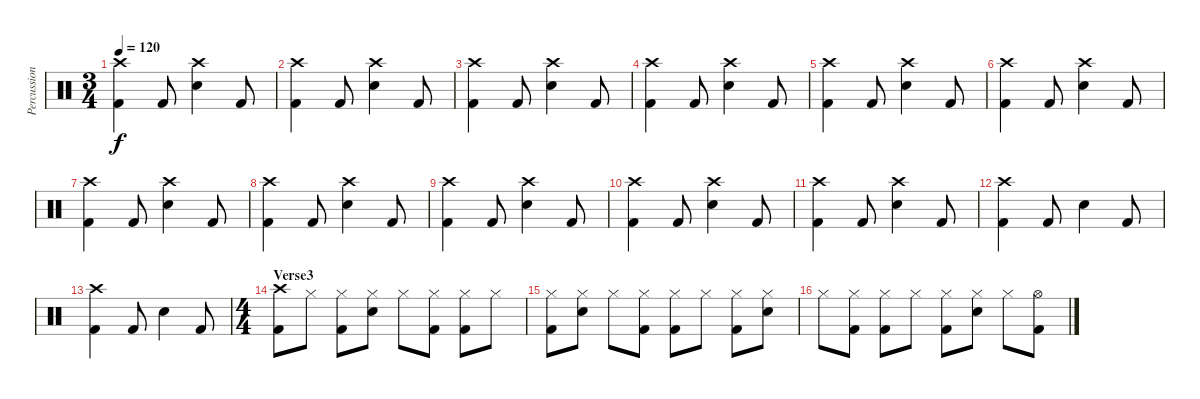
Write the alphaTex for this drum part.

\track ("Percussion" "Percussion") {instrument percussion}
\staff {score}
\articulation defaults
\ts (3 4)
\tempo 120
\clef neutral
\ks c
("Crash high (hit)" "Kick (hit) 2").4{dy f} "Kick (hit) 2".8 ("Crash high (hit)" "Snare (hit) 2").4 "Kick (hit) 2".8 |
("Crash high (hit)" "Kick (hit) 2").4 "Kick (hit) 2".8 ("Crash high (hit)" "Snare (hit) 2").4 "Kick (hit) 2".8 |
("Crash high (hit)" "Kick (hit) 2").4 "Kick (hit) 2".8 ("Crash high (hit)" "Snare (hit) 2").4 "Kick (hit) 2".8 |
("Crash high (hit)" "Kick (hit) 2").4 "Kick (hit) 2".8 ("Crash high (hit)" "Snare (hit) 2").4 "Kick (hit) 2".8 |
("Crash high (hit)" "Kick (hit) 2").4 "Kick (hit) 2".8 ("Crash high (hit)" "Snare (hit) 2").4 "Kick (hit) 2".8 |
("Crash high (hit)" "Kick (hit) 2").4 "Kick (hit) 2".8 ("Crash high (hit)" "Snare (hit) 2").4 "Kick (hit) 2".8 |
("Crash high (hit)" "Kick (hit) 2").4 "Kick (hit) 2".8 ("Crash high (hit)" "Snare (hit) 2").4 "Kick (hit) 2".8 |
("Crash high (hit)" "Kick (hit) 2").4 "Kick (hit) 2".8 ("Crash high (hit)" "Snare (hit) 2").4 "Kick (hit) 2".8 |
("Crash high (hit)" "Kick (hit) 2").4 "Kick (hit) 2".8 ("Crash high (hit)" "Snare (hit) 2").4 "Kick (hit) 2".8 |
("Crash high (hit)" "Kick (hit) 2").4 "Kick (hit) 2".8 ("Crash high (hit)" "Snare (hit) 2").4 "Kick (hit) 2".8 |
("Crash high (hit)" "Kick (hit) 2").4 "Kick (hit) 2".8 ("Crash high (hit)" "Snare (hit) 2").4 "Kick (hit) 2".8 |
("Crash high (hit)" "Kick (hit) 2").4 "Kick (hit) 2".8 "Snare (hit) 2".4 "Kick (hit) 2".8 |
("Crash high (hit)" "Kick (hit) 2").4 "Kick (hit) 2".8 "Snare (hit) 2".4 "Kick (hit) 2".8 |
\ts (4 4)
\section ("" "Verse3")
("Crash high (hit)" "Kick (hit) 2").8 "Hi-Hat (closed)".8 ("Hi-Hat (closed)" "Kick (hit) 2").8 ("Hi-Hat (closed)" "Snare (hit) 2").8 "Hi-Hat (closed)".8 ("Hi-Hat (closed)" "Kick (hit) 2").8 ("Hi-Hat (closed)" "Kick (hit) 2").8 "Hi-Hat (closed)".8 |
("Hi-Hat (closed)" "Kick (hit) 2").8 ("Hi-Hat (closed)" "Snare (hit) 2").8 "Hi-Hat (closed)".8 ("Hi-Hat (closed)" "Kick (hit) 2").8 ("Hi-Hat (closed)" "Kick (hit) 2").8 "Hi-Hat (closed)".8 ("Hi-Hat (closed)" "Kick (hit) 2").8 ("Hi-Hat (closed)" "Snare (hit) 2").8 |
"Hi-Hat (closed)".8 ("Hi-Hat (closed)" "Kick (hit) 2").8 ("Hi-Hat (closed)" "Kick (hit) 2").8 "Hi-Hat (closed)".8 ("Hi-Hat (closed)" "Kick (hit) 2").8 ("Hi-Hat (closed)" "Snare (hit) 2").8 "Hi-Hat (closed)".8 ("Hi-Hat (open)" "Kick (hit) 2").8
